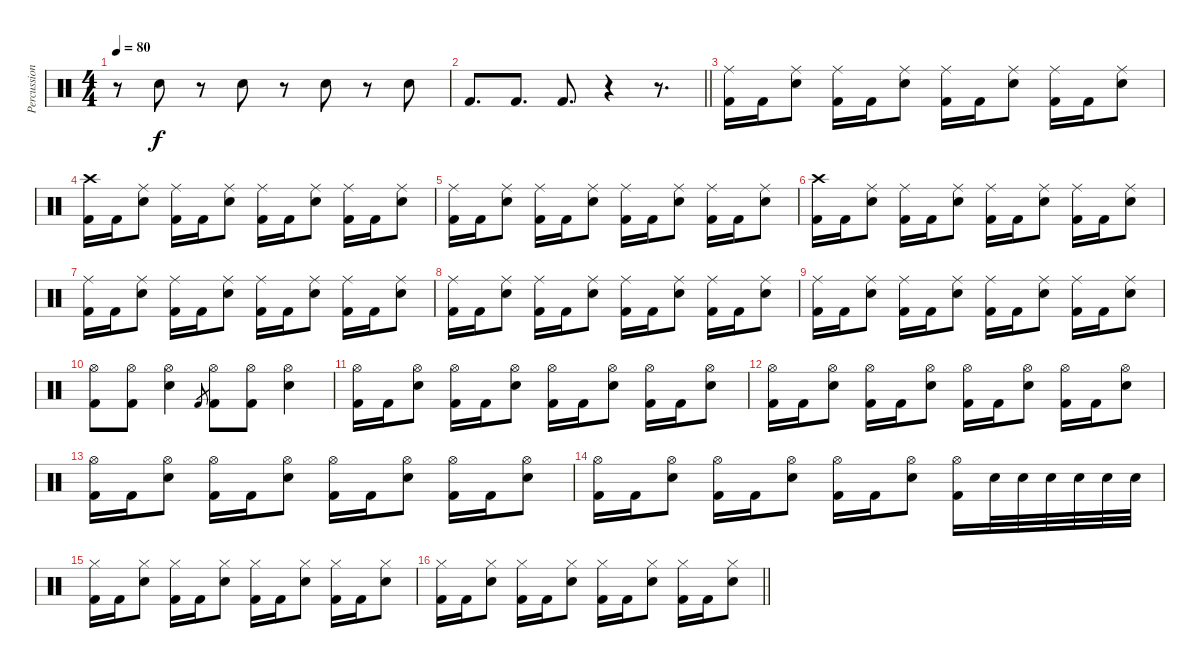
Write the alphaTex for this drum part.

\track ("Percussion" "Percussion") {instrument percussion}
\staff {score}
\articulation defaults
\ts (4 4)
\tempo 80
\clef neutral
\ks c
r.8{dy f} "Snare (hit) 2".8 r.8 "Snare (hit) 2".8 r.8 "Snare (hit) 2".8 r.8 "Snare (hit) 2".8 |
\barLineRight lightlight "Kick (hit) 2".8{d} "Kick (hit) 2".8{d} "Kick (hit) 2".8{d}
r.4 r.8{d} |
("Ride (middle)" "Kick (hit) 2").16 "Kick (hit) 2".16 ("Ride (middle)" "Snare (hit) 2").8 ("Ride (middle)" "Kick (hit) 2").16 "Kick (hit) 2".16 ("Ride (middle)" "Snare (hit) 2").8 ("Ride (middle)" "Kick (hit) 2").16 "Kick (hit) 2".16 ("Ride (middle)" "Snare (hit) 2").8 ("Ride (middle)" "Kick (hit) 2").16 "Kick (hit) 2".16 ("Ride (middle)" "Snare (hit) 2").8 |
("Crash high (hit)" "Kick (hit) 2").16 "Kick (hit) 2".16 ("Ride (middle)" "Snare (hit) 2").8 ("Ride (middle)" "Kick (hit) 2").16 "Kick (hit) 2".16 ("Ride (middle)" "Snare (hit) 2").8 ("Ride (middle)" "Kick (hit) 2").16 "Kick (hit) 2".16 ("Ride (middle)" "Snare (hit) 2").8 ("Ride (middle)" "Kick (hit) 2").16 "Kick (hit) 2".16 ("Ride (middle)" "Snare (hit) 2").8 |
("Ride (middle)" "Kick (hit) 2").16 "Kick (hit) 2".16 ("Ride (middle)" "Snare (hit) 2").8 ("Ride (middle)" "Kick (hit) 2").16 "Kick (hit) 2".16 ("Ride (middle)" "Snare (hit) 2").8 ("Ride (middle)" "Kick (hit) 2").16 "Kick (hit) 2".16 ("Ride (middle)" "Snare (hit) 2").8 ("Ride (middle)" "Kick (hit) 2").16 "Kick (hit) 2".16 ("Ride (middle)" "Snare (hit) 2").8 |
("Crash high (hit)" "Kick (hit) 2").16 "Kick (hit) 2".16 ("Ride (middle)" "Snare (hit) 2").8 ("Ride (middle)" "Kick (hit) 2").16 "Kick (hit) 2".16 ("Ride (middle)" "Snare (hit) 2").8 ("Ride (middle)" "Kick (hit) 2").16 "Kick (hit) 2".16 ("Ride (middle)" "Snare (hit) 2").8 ("Ride (middle)" "Kick (hit) 2").16 "Kick (hit) 2".16 ("Ride (middle)" "Snare (hit) 2").8 |
("Ride (middle)" "Kick (hit) 2").16 "Kick (hit) 2".16 ("Ride (middle)" "Snare (hit) 2").8 ("Ride (middle)" "Kick (hit) 2").16 "Kick (hit) 2".16 ("Ride (middle)" "Snare (hit) 2").8 ("Ride (middle)" "Kick (hit) 2").16 "Kick (hit) 2".16 ("Ride (middle)" "Snare (hit) 2").8 ("Ride (middle)" "Kick (hit) 2").16 "Kick (hit) 2".16 ("Ride (middle)" "Snare (hit) 2").8 |
("Ride (middle)" "Kick (hit) 2").16 "Kick (hit) 2".16 ("Ride (middle)" "Snare (hit) 2").8 ("Ride (middle)" "Kick (hit) 2").16 "Kick (hit) 2".16 ("Ride (middle)" "Snare (hit) 2").8 ("Ride (middle)" "Kick (hit) 2").16 "Kick (hit) 2".16 ("Ride (middle)" "Snare (hit) 2").8 ("Ride (middle)" "Kick (hit) 2").16 "Kick (hit) 2".16 ("Ride (middle)" "Snare (hit) 2").8 |
("Ride (middle)" "Kick (hit) 2").16 "Kick (hit) 2".16 ("Ride (middle)" "Snare (hit) 2").8 ("Ride (middle)" "Kick (hit) 2").16 "Kick (hit) 2".16 ("Ride (middle)" "Snare (hit) 2").8 ("Ride (middle)" "Kick (hit) 2").16 "Kick (hit) 2".16 ("Ride (middle)" "Snare (hit) 2").8 ("Ride (middle)" "Kick (hit) 2").16 "Kick (hit) 2".16 ("Ride (middle)" "Snare (hit) 2").8 |
("Hi-Hat (open)" "Kick (hit) 2").8 ("Hi-Hat (open)" "Kick (hit) 2").8 ("Hi-Hat (open)" "Snare (hit) 2").4 "Kick (hit) 2".8{gr} ("Hi-Hat (open)" "Kick (hit) 2").8 ("Hi-Hat (open)" "Kick (hit) 2").8 ("Hi-Hat (open)" "Snare (hit) 2").4 |
("Hi-Hat (open)" "Kick (hit) 2").16 "Kick (hit) 2".16 ("Hi-Hat (open)" "Snare (hit) 2").8 ("Hi-Hat (open)" "Kick (hit) 2").16 "Kick (hit) 2".16 ("Hi-Hat (open)" "Snare (hit) 2").8 ("Hi-Hat (open)" "Kick (hit) 2").16 "Kick (hit) 2".16 ("Hi-Hat (open)" "Snare (hit) 2").8 ("Hi-Hat (open)" "Kick (hit) 2").16 "Kick (hit) 2".16 ("Hi-Hat (open)" "Snare (hit) 2").8 |
("Hi-Hat (open)" "Kick (hit) 2").16 "Kick (hit) 2".16 ("Hi-Hat (open)" "Snare (hit) 2").8 ("Hi-Hat (open)" "Kick (hit) 2").16 "Kick (hit) 2".16 ("Hi-Hat (open)" "Snare (hit) 2").8 ("Hi-Hat (open)" "Kick (hit) 2").16 "Kick (hit) 2".16 ("Hi-Hat (open)" "Snare (hit) 2").8 ("Hi-Hat (open)" "Kick (hit) 2").16 "Kick (hit) 2".16 ("Hi-Hat (open)" "Snare (hit) 2").8 |
("Hi-Hat (open)" "Kick (hit) 2").16 "Kick (hit) 2".16 ("Hi-Hat (open)" "Snare (hit) 2").8 ("Hi-Hat (open)" "Kick (hit) 2").16 "Kick (hit) 2".16 ("Hi-Hat (open)" "Snare (hit) 2").8 ("Hi-Hat (open)" "Kick (hit) 2").16 "Kick (hit) 2".16 ("Hi-Hat (open)" "Snare (hit) 2").8 ("Hi-Hat (open)" "Kick (hit) 2").16 "Kick (hit) 2".16 ("Hi-Hat (open)" "Snare (hit) 2").8 |
("Hi-Hat (open)" "Kick (hit) 2").16 "Kick (hit) 2".16 ("Hi-Hat (open)" "Snare (hit) 2").8 ("Hi-Hat (open)" "Kick (hit) 2").16 "Kick (hit) 2".16 ("Hi-Hat (open)" "Snare (hit) 2").8 ("Hi-Hat (open)" "Kick (hit) 2").16 "Kick (hit) 2".16 ("Hi-Hat (open)" "Snare (hit) 2").8 ("Hi-Hat (open)" "Kick (hit) 2").16 "Snare (hit) 2".32 "Snare (hit) 2".32 "Snare (hit) 2".32 "Snare (hit) 2".32 "Snare (hit) 2".32 "Snare (hit) 2".32 |
("Hi-Hat (closed)" "Kick (hit) 2").16 "Kick (hit) 2".16 ("Hi-Hat (closed)" "Snare (hit) 2").8 ("Hi-Hat (closed)" "Kick (hit) 2").16 "Kick (hit) 2".16 ("Hi-Hat (closed)" "Snare (hit) 2").8 ("Hi-Hat (closed)" "Kick (hit) 2").16 "Kick (hit) 2".16 ("Hi-Hat (closed)" "Snare (hit) 2").8 ("Hi-Hat (closed)" "Kick (hit) 2").16 "Kick (hit) 2".16 ("Hi-Hat (closed)" "Snare (hit) 2").8 |
\barLineRight lightlight
("Hi-Hat (closed)" "Kick (hit) 2").16 "Kick (hit) 2".16 ("Hi-Hat (closed)" "Snare (hit) 2").8 ("Hi-Hat (closed)" "Kick (hit) 2").16 "Kick (hit) 2".16 ("Hi-Hat (closed)" "Snare (hit) 2").8 ("Hi-Hat (closed)" "Kick (hit) 2").16 "Kick (hit) 2".16 ("Hi-Hat (closed)" "Snare (hit) 2").8 ("Hi-Hat (closed)" "Kick (hit) 2").16 "Kick (hit) 2".16 ("Hi-Hat (closed)" "Snare (hit) 2").8
